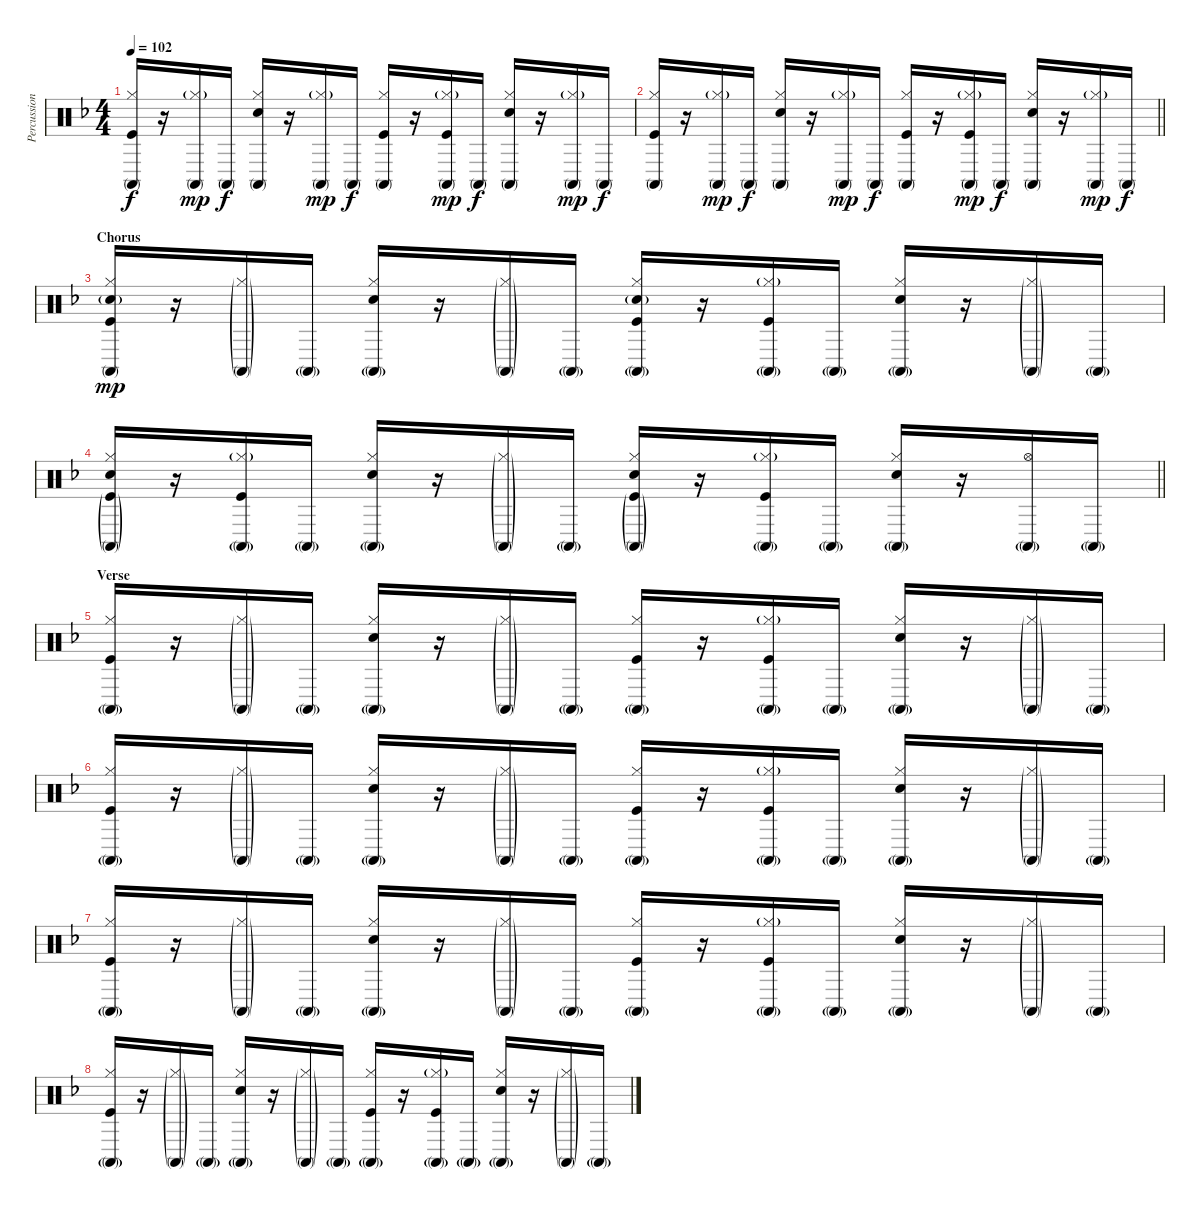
\track ("Percussion" "Percussion") {instrument percussion bank 255}
\staff {score}
\articulation defaults
\ts (4 4)
\tempo 102
\clef neutral
\ks f
("Conga high (mute)" "Hi-Hat (closed)" "Kick (hit)").16{dy f} r.16 ("Conga high (mute)" "Hi-Hat (closed)"{g}).16{dy mp} "Conga high (mute)".16{dy f} ("Conga high (mute)" "Hi-Hat (closed)" "Snare (hit) 2").16 r.16 ("Conga high (mute)" "Hi-Hat (closed)"{g}).16{dy mp} "Conga high (mute)".16{dy f} ("Conga high (mute)" "Hi-Hat (closed)" "Kick (hit)").16 r.16 ("Conga high (mute)" "Hi-Hat (closed)"{g} "Kick (hit)").16{dy mp} "Conga high (mute)".16{dy f} ("Conga high (mute)" "Hi-Hat (closed)" "Snare (hit) 2").16 r.16 ("Conga high (mute)" "Hi-Hat (closed)"{g}).16{dy mp} "Conga high (mute)".16{dy f} |
\barLineRight lightlight
("Conga high (mute)" "Hi-Hat (closed)" "Kick (hit)").16 r.16 ("Conga high (mute)" "Hi-Hat (closed)"{g}).16{dy mp} "Conga high (mute)".16{dy f} ("Conga high (mute)" "Hi-Hat (closed)" "Snare (hit) 2").16 r.16 ("Conga high (mute)" "Hi-Hat (closed)"{g}).16{dy mp} "Conga high (mute)".16{dy f} ("Conga high (mute)" "Hi-Hat (closed)" "Kick (hit)").16 r.16 ("Conga high (mute)" "Hi-Hat (closed)"{g} "Kick (hit)").16{dy mp} "Conga high (mute)".16{dy f} ("Conga high (mute)" "Hi-Hat (closed)" "Snare (hit) 2").16 r.16 ("Conga high (mute)" "Hi-Hat (closed)"{g}).16{dy mp} "Conga high (mute)".16{dy f} |
\section ("" "Chorus")
("Conga high (mute)" "Hi-Hat (closed)" "Snare (hit) 2"{g} "Kick (hit)").16{dy mp} r.16 ("Conga high (mute)"{g} "Hi-Hat (closed)"{g}).16 "Conga high (mute)"{g}.16 ("Conga high (mute)"{g} "Hi-Hat (closed)" "Snare (hit) 2").16 r.16 ("Conga high (mute)"{g} "Hi-Hat (closed)"{g}).16 "Conga high (mute)"{g}.16 ("Conga high (mute)"{g} "Hi-Hat (closed)" "Snare (hit) 2"{g} "Kick (hit)").16 r.16 ("Conga high (mute)"{g} "Hi-Hat (closed)"{g} "Kick (hit)").16 "Conga high (mute)"{g}.16 ("Conga high (mute)"{g} "Hi-Hat (closed)" "Snare (hit) 2").16 r.16 ("Conga high (mute)"{g} "Hi-Hat (closed)"{g}).16 "Conga high (mute)"{g}.16 |
\barLineRight lightlight
("Conga high (mute)"{g} "Hi-Hat (closed)" "Snare (hit) 2" "Kick (hit)"{g}).16 r.16 ("Conga high (mute)"{g} "Hi-Hat (closed)"{g} "Kick (hit)").16 "Conga high (mute)"{g}.16 ("Conga high (mute)"{g} "Hi-Hat (closed)" "Snare (hit) 2").16 r.16 ("Conga high (mute)"{g} "Hi-Hat (closed)"{g}).16 "Conga high (mute)"{g}.16 ("Conga high (mute)"{g} "Hi-Hat (closed)" "Snare (hit) 2" "Kick (hit)"{g}).16 r.16 ("Conga high (mute)"{g} "Hi-Hat (closed)"{g} "Kick (hit)").16 "Conga high (mute)"{g}.16 ("Conga high (mute)"{g} "Hi-Hat (closed)" "Snare (hit) 2").16 r.16 ("Conga high (mute)"{g} "Hi-Hat (open)").16 "Conga high (mute)"{g}.16 |
\section ("" "Verse")
("Conga high (mute)"{g} "Hi-Hat (closed)" "Kick (hit)").16 r.16 ("Conga high (mute)"{g} "Hi-Hat (closed)"{g}).16 "Conga high (mute)"{g}.16 ("Conga high (mute)"{g} "Hi-Hat (closed)" "Snare (hit) 2").16 r.16 ("Conga high (mute)"{g} "Hi-Hat (closed)"{g}).16 "Conga high (mute)"{g}.16 ("Conga high (mute)"{g} "Hi-Hat (closed)" "Kick (hit)").16 r.16 ("Conga high (mute)"{g} "Hi-Hat (closed)"{g} "Kick (hit)").16 "Conga high (mute)"{g}.16 ("Conga high (mute)"{g} "Hi-Hat (closed)" "Snare (hit) 2").16 r.16 ("Conga high (mute)"{g} "Hi-Hat (closed)"{g}).16 "Conga high (mute)"{g}.16 |
("Conga high (mute)"{g} "Hi-Hat (closed)" "Kick (hit)").16 r.16 ("Conga high (mute)"{g} "Hi-Hat (closed)"{g}).16 "Conga high (mute)"{g}.16 ("Conga high (mute)"{g} "Hi-Hat (closed)" "Snare (hit) 2").16 r.16 ("Conga high (mute)"{g} "Hi-Hat (closed)"{g}).16 "Conga high (mute)"{g}.16 ("Conga high (mute)"{g} "Hi-Hat (closed)" "Kick (hit)").16 r.16 ("Conga high (mute)"{g} "Hi-Hat (closed)"{g} "Kick (hit)").16 "Conga high (mute)"{g}.16 ("Conga high (mute)"{g} "Hi-Hat (closed)" "Snare (hit) 2").16 r.16 ("Conga high (mute)"{g} "Hi-Hat (closed)"{g}).16 "Conga high (mute)"{g}.16 |
("Conga high (mute)"{g} "Hi-Hat (closed)" "Kick (hit)").16 r.16 ("Conga high (mute)"{g} "Hi-Hat (closed)"{g}).16 "Conga high (mute)"{g}.16 ("Conga high (mute)"{g} "Hi-Hat (closed)" "Snare (hit) 2").16 r.16 ("Conga high (mute)"{g} "Hi-Hat (closed)"{g}).16 "Conga high (mute)"{g}.16 ("Conga high (mute)"{g} "Hi-Hat (closed)" "Kick (hit)").16 r.16 ("Conga high (mute)"{g} "Hi-Hat (closed)"{g} "Kick (hit)").16 "Conga high (mute)"{g}.16 ("Conga high (mute)"{g} "Hi-Hat (closed)" "Snare (hit) 2").16 r.16 ("Conga high (mute)"{g} "Hi-Hat (closed)"{g}).16 "Conga high (mute)"{g}.16 |
("Conga high (mute)"{g} "Hi-Hat (closed)" "Kick (hit)").16 r.16 ("Conga high (mute)"{g} "Hi-Hat (closed)"{g}).16 "Conga high (mute)"{g}.16 ("Conga high (mute)"{g} "Hi-Hat (closed)" "Snare (hit) 2").16 r.16 ("Conga high (mute)"{g} "Hi-Hat (closed)"{g}).16 "Conga high (mute)"{g}.16 ("Conga high (mute)"{g} "Hi-Hat (closed)" "Kick (hit)").16 r.16 ("Conga high (mute)"{g} "Hi-Hat (closed)"{g} "Kick (hit)").16 "Conga high (mute)"{g}.16 ("Conga high (mute)"{g} "Hi-Hat (closed)" "Snare (hit) 2").16 r.16 ("Conga high (mute)"{g} "Hi-Hat (closed)"{g}).16 "Conga high (mute)"{g}.16
